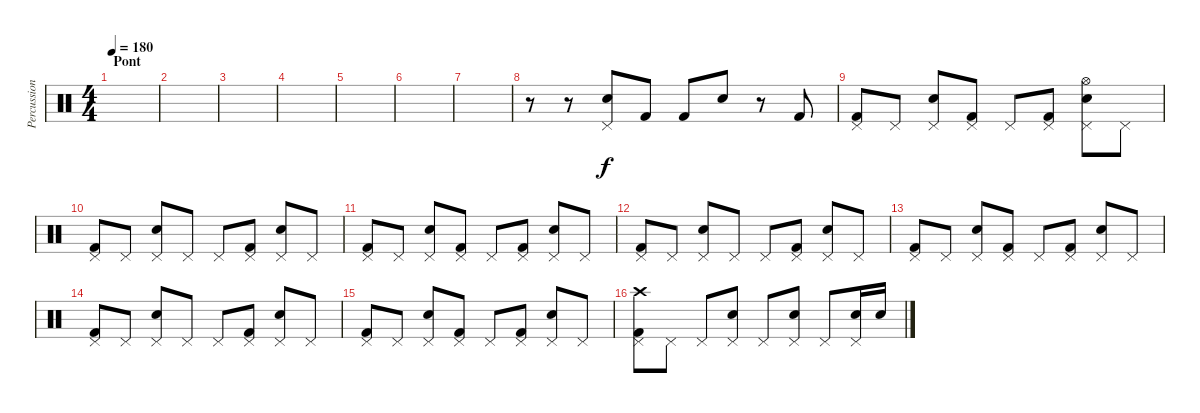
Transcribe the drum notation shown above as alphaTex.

\track ("Percussions" "Percussion") {instrument percussion}
\staff {score}
\articulation defaults
\ts (4 4)
\section ("" "Pont")
\tempo 180
\clef neutral
\ks c
|
|
|
|
|
|
|
r.8 r.8 ("Pedal Hi-Hat (hit)" "Electric Snare (hit)").8 "Kick (hit) 2".8 "Kick (hit) 2".8 "Electric Snare (hit)".8 r.8 "Kick (hit) 2".8 |
("Pedal Hi-Hat (hit)" "Kick (hit) 2").8 "Pedal Hi-Hat (hit)".8 ("Pedal Hi-Hat (hit)" "Electric Snare (hit)").8 ("Pedal Hi-Hat (hit)" "Kick (hit) 2").8 "Pedal Hi-Hat (hit)".8 ("Pedal Hi-Hat (hit)" "Kick (hit) 2").8 ("Pedal Hi-Hat (hit)" "Hi-Hat (open)" "Electric Snare (hit)").8 "Pedal Hi-Hat (hit)".8 |
("Pedal Hi-Hat (hit)" "Kick (hit) 2").8 "Pedal Hi-Hat (hit)".8 ("Pedal Hi-Hat (hit)" "Electric Snare (hit)").8 "Pedal Hi-Hat (hit)".8 "Pedal Hi-Hat (hit)".8 ("Pedal Hi-Hat (hit)" "Kick (hit) 2").8 ("Pedal Hi-Hat (hit)" "Electric Snare (hit)").8 "Pedal Hi-Hat (hit)".8 |
("Pedal Hi-Hat (hit)" "Kick (hit) 2").8 "Pedal Hi-Hat (hit)".8 ("Pedal Hi-Hat (hit)" "Electric Snare (hit)").8 ("Pedal Hi-Hat (hit)" "Kick (hit) 2").8 "Pedal Hi-Hat (hit)".8 ("Pedal Hi-Hat (hit)" "Kick (hit) 2").8 ("Pedal Hi-Hat (hit)" "Electric Snare (hit)").8 "Pedal Hi-Hat (hit)".8 |
("Pedal Hi-Hat (hit)" "Kick (hit) 2").8 "Pedal Hi-Hat (hit)".8 ("Pedal Hi-Hat (hit)" "Electric Snare (hit)").8 "Pedal Hi-Hat (hit)".8 "Pedal Hi-Hat (hit)".8 ("Pedal Hi-Hat (hit)" "Kick (hit) 2").8 ("Pedal Hi-Hat (hit)" "Electric Snare (hit)").8 "Pedal Hi-Hat (hit)".8 |
("Pedal Hi-Hat (hit)" "Kick (hit) 2").8 "Pedal Hi-Hat (hit)".8 ("Pedal Hi-Hat (hit)" "Electric Snare (hit)").8 ("Pedal Hi-Hat (hit)" "Kick (hit) 2").8 "Pedal Hi-Hat (hit)".8 ("Pedal Hi-Hat (hit)" "Kick (hit) 2").8 ("Pedal Hi-Hat (hit)" "Electric Snare (hit)").8 "Pedal Hi-Hat (hit)".8 |
("Pedal Hi-Hat (hit)" "Kick (hit) 2").8 "Pedal Hi-Hat (hit)".8 ("Pedal Hi-Hat (hit)" "Electric Snare (hit)").8 "Pedal Hi-Hat (hit)".8 "Pedal Hi-Hat (hit)".8 ("Pedal Hi-Hat (hit)" "Kick (hit) 2").8 ("Pedal Hi-Hat (hit)" "Electric Snare (hit)").8 "Pedal Hi-Hat (hit)".8 |
("Pedal Hi-Hat (hit)" "Kick (hit) 2").8 "Pedal Hi-Hat (hit)".8 ("Pedal Hi-Hat (hit)" "Electric Snare (hit)").8 ("Pedal Hi-Hat (hit)" "Kick (hit) 2").8 "Pedal Hi-Hat (hit)".8 ("Pedal Hi-Hat (hit)" "Kick (hit) 2").8 ("Pedal Hi-Hat (hit)" "Electric Snare (hit)").8 "Pedal Hi-Hat (hit)".8 |
("Pedal Hi-Hat (hit)" "Crash high (hit)" "Kick (hit) 2").8 "Pedal Hi-Hat (hit)".8 "Pedal Hi-Hat (hit)".8 ("Pedal Hi-Hat (hit)" "Electric Snare (hit)").8 "Pedal Hi-Hat (hit)".8 ("Pedal Hi-Hat (hit)" "Electric Snare (hit)").8 "Pedal Hi-Hat (hit)".8 ("Pedal Hi-Hat (hit)" "Electric Snare (hit)").16 "Electric Snare (hit)".16
